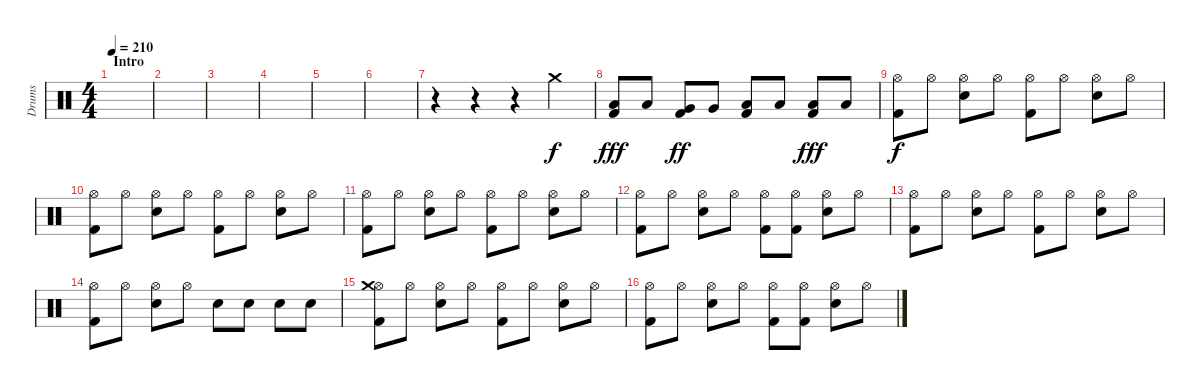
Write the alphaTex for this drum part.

\track ("Drums" "Drums") {instrument percussion}
\staff {score}
\articulation defaults
\ts (4 4)
\section ("" "Intro")
\tempo 210
\clef neutral
\ks c
|
|
|
|
|
|
r.4 r.4 r.4 "Crash medium (hit)".4 |
("Low Floor Tom (hit)" "Kick (hit) 2").8{dy fff} "Low Floor Tom (hit)".8 ("Very Low Tom (hit)" "Kick (hit) 2").8{dy ff} "Very Low Tom (hit)".8 ("Low Tom (hit)" "Kick (hit) 2").8 "Low Tom (hit)".8 ("Low Floor Tom (hit)" "Kick (hit) 2").8{dy fff} "Low Floor Tom (hit)".8 |
("Hi-Hat (open)" "Kick (hit) 2").8{dy f} "Hi-Hat (open)".8 ("Hi-Hat (open)" "Electric Snare (hit)").8 "Hi-Hat (open)".8 ("Hi-Hat (open)" "Kick (hit) 2").8 "Hi-Hat (open)".8 ("Hi-Hat (open)" "Electric Snare (hit)").8 "Hi-Hat (open)".8 |
("Hi-Hat (open)" "Kick (hit) 2").8 "Hi-Hat (open)".8 ("Hi-Hat (open)" "Electric Snare (hit)").8 "Hi-Hat (open)".8 ("Hi-Hat (open)" "Kick (hit) 2").8 "Hi-Hat (open)".8 ("Hi-Hat (open)" "Electric Snare (hit)").8 "Hi-Hat (open)".8 |
("Hi-Hat (open)" "Kick (hit) 2").8 "Hi-Hat (open)".8 ("Hi-Hat (open)" "Electric Snare (hit)").8 "Hi-Hat (open)".8 ("Hi-Hat (open)" "Kick (hit) 2").8 "Hi-Hat (open)".8 ("Hi-Hat (open)" "Electric Snare (hit)").8 "Hi-Hat (open)".8 |
("Hi-Hat (open)" "Kick (hit) 2").8 "Hi-Hat (open)".8 ("Hi-Hat (open)" "Electric Snare (hit)").8 "Hi-Hat (open)".8 ("Hi-Hat (open)" "Kick (hit) 2").8 ("Hi-Hat (open)" "Kick (hit) 2").8 ("Hi-Hat (open)" "Electric Snare (hit)").8 "Hi-Hat (open)".8 |
("Hi-Hat (open)" "Kick (hit) 2").8 "Hi-Hat (open)".8 ("Hi-Hat (open)" "Electric Snare (hit)").8 "Hi-Hat (open)".8 ("Hi-Hat (open)" "Kick (hit) 2").8 "Hi-Hat (open)".8 ("Hi-Hat (open)" "Electric Snare (hit)").8 "Hi-Hat (open)".8 |
("Hi-Hat (open)" "Kick (hit) 2").8 "Hi-Hat (open)".8 ("Hi-Hat (open)" "Electric Snare (hit)").8 "Hi-Hat (open)".8 "Electric Snare (hit)".8 "Electric Snare (hit)".8 "Electric Snare (hit)".8 "Electric Snare (hit)".8 |
("Hi-Hat (open)" "Crash medium (hit)" "Kick (hit) 2").8 "Hi-Hat (open)".8 ("Hi-Hat (open)" "Electric Snare (hit)").8 "Hi-Hat (open)".8 ("Hi-Hat (open)" "Kick (hit) 2").8 "Hi-Hat (open)".8 ("Hi-Hat (open)" "Electric Snare (hit)").8 "Hi-Hat (open)".8 |
("Hi-Hat (open)" "Kick (hit) 2").8 "Hi-Hat (open)".8 ("Hi-Hat (open)" "Electric Snare (hit)").8 "Hi-Hat (open)".8 ("Hi-Hat (open)" "Kick (hit) 2").8 ("Hi-Hat (open)" "Kick (hit) 2").8 ("Hi-Hat (open)" "Electric Snare (hit)").8 "Hi-Hat (open)".8
